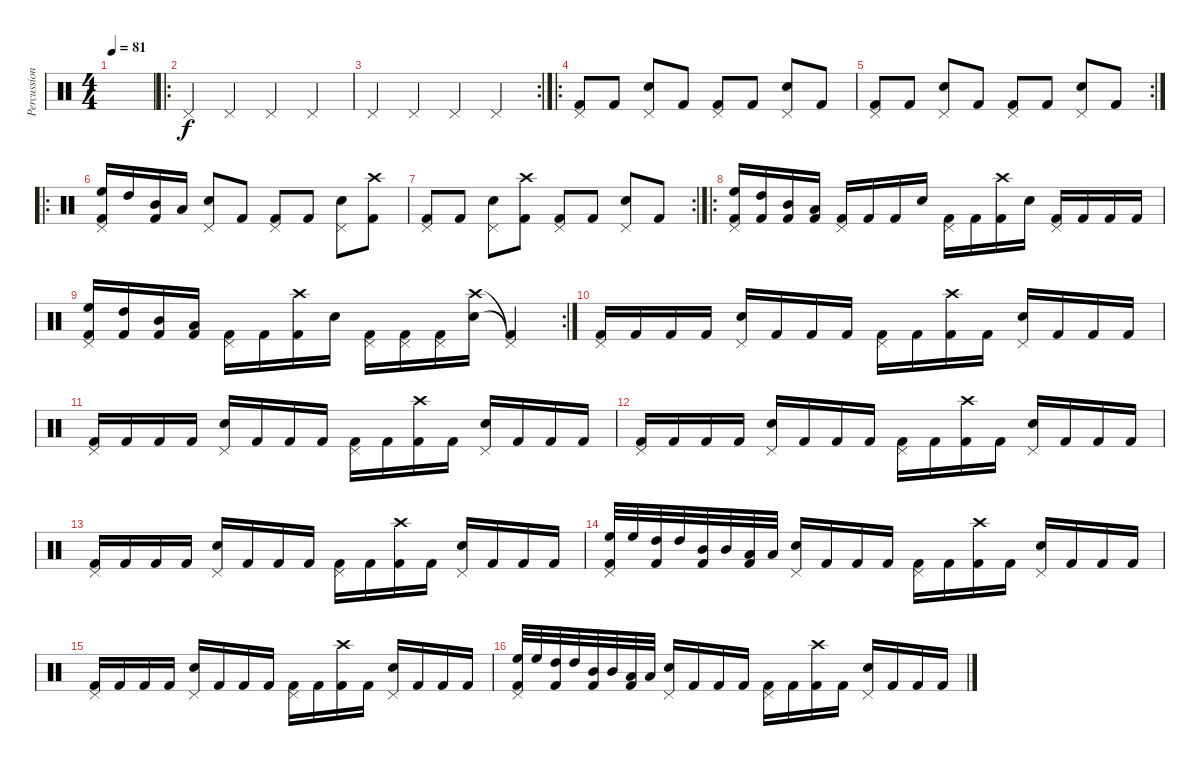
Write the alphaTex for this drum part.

\track ("Percussions" "Percussion") {instrument percussion}
\staff {score}
\articulation defaults
\ts (4 4)
\tempo 81
\clef neutral
\ks c
|
\ro "Pedal Hi-Hat (hit)".4 "Pedal Hi-Hat (hit)".4 "Pedal Hi-Hat (hit)".4 "Pedal Hi-Hat (hit)".4
|
\rc 2 "Pedal Hi-Hat (hit)".4 "Pedal Hi-Hat (hit)".4 "Pedal Hi-Hat (hit)".4 "Pedal Hi-Hat (hit)".4
|
\ro
("Pedal Hi-Hat (hit)" "Kick (hit) 2").8 "Kick (hit) 2".8 ("Pedal Hi-Hat (hit)" "Snare (hit) 2").8 "Kick (hit) 2".8 ("Pedal Hi-Hat (hit)" "Kick (hit) 2").8 "Kick (hit) 2".8 ("Pedal Hi-Hat (hit)" "Snare (hit) 2").8 "Kick (hit) 2".8 |
\rc 2
("Pedal Hi-Hat (hit)" "Kick (hit) 2").8 "Kick (hit) 2".8 ("Pedal Hi-Hat (hit)" "Snare (hit) 2").8 "Kick (hit) 2".8 ("Pedal Hi-Hat (hit)" "Kick (hit) 2").8 "Kick (hit) 2".8 ("Pedal Hi-Hat (hit)" "Snare (hit) 2").8 "Kick (hit) 2".8 |
\ro
("Pedal Hi-Hat (hit)" "High Floor Tom (hit)" "Kick (hit) 2").16 "High Tom (hit)".16 ("Mid Tom (hit)" "Kick (hit) 2").16 "Low Tom (hit)".16 ("Pedal Hi-Hat (hit)" "Snare (hit) 2").8 "Kick (hit) 2".8 ("Pedal Hi-Hat (hit)" "Kick (hit) 2").8 "Kick (hit) 2".8 ("Pedal Hi-Hat (hit)" "Snare (hit) 2").8 ("Crash high (hit)" "Kick (hit) 2").8 |
\rc 2
("Pedal Hi-Hat (hit)" "Kick (hit) 2").8 "Kick (hit) 2".8 ("Pedal Hi-Hat (hit)" "Snare (hit) 2").8 ("Crash high (hit)" "Kick (hit) 2").8 ("Pedal Hi-Hat (hit)" "Kick (hit) 2").8 "Kick (hit) 2".8 ("Pedal Hi-Hat (hit)" "Snare (hit) 2").8 "Kick (hit) 2".8 |
\ro
("Pedal Hi-Hat (hit)" "High Floor Tom (hit)" "Kick (hit) 2").16 ("High Tom (hit)" "Kick (hit) 2").16 ("Mid Tom (hit)" "Kick (hit) 2").16 ("Low Tom (hit)" "Kick (hit) 2").16 ("Pedal Hi-Hat (hit)" "Kick (hit) 2").16 "Kick (hit) 2".16 "Kick (hit) 2".16 "Snare (hit) 2".16 ("Pedal Hi-Hat (hit)" "Kick (hit) 2").16 "Kick (hit) 2".16 ("Crash high (hit)" "Kick (hit) 2").16 "Snare (hit) 2".16 ("Pedal Hi-Hat (hit)" "Kick (hit) 2").16 "Kick (hit) 2".16 "Kick (hit) 2".16 "Kick (hit) 2".16 |
\rc 2
("Pedal Hi-Hat (hit)" "High Floor Tom (hit)" "Kick (hit) 2").16 ("High Tom (hit)" "Kick (hit) 2").16 ("Mid Tom (hit)" "Kick (hit) 2").16 ("Low Tom (hit)" "Kick (hit) 2").16 ("Pedal Hi-Hat (hit)" "Kick (hit) 2").16 "Kick (hit) 2".16 ("Crash high (hit)" "Kick (hit) 2").16 "Snare (hit) 2".16 ("Pedal Hi-Hat (hit)" "Kick (hit) 2").16 ("Pedal Hi-Hat (hit)" "Kick (hit) 2").16 ("Pedal Hi-Hat (hit)" "Kick (hit) 2").16 ("Crash high (hit)" "Snare (hit) 2").16 ("Pedal Hi-Hat (hit)"{t} "Kick (hit) 2"{t}).4 |
("Pedal Hi-Hat (hit)" "Kick (hit) 2").16 "Kick (hit) 2".16 "Kick (hit) 2".16 "Kick (hit) 2".16 ("Pedal Hi-Hat (hit)" "Snare (hit) 2").16 "Kick (hit) 2".16 "Kick (hit) 2".16 "Kick (hit) 2".16 ("Pedal Hi-Hat (hit)" "Kick (hit) 2").16 "Kick (hit) 2".16 ("Crash high (hit)" "Kick (hit) 2").16 "Kick (hit) 2".16 ("Pedal Hi-Hat (hit)" "Snare (hit) 2").16 "Kick (hit) 2".16 "Kick (hit) 2".16 "Kick (hit) 2".16 |
("Pedal Hi-Hat (hit)" "Kick (hit) 2").16 "Kick (hit) 2".16 "Kick (hit) 2".16 "Kick (hit) 2".16 ("Pedal Hi-Hat (hit)" "Snare (hit) 2").16 "Kick (hit) 2".16 "Kick (hit) 2".16 "Kick (hit) 2".16 ("Pedal Hi-Hat (hit)" "Kick (hit) 2").16 "Kick (hit) 2".16 ("Crash high (hit)" "Kick (hit) 2").16 "Kick (hit) 2".16 ("Pedal Hi-Hat (hit)" "Snare (hit) 2").16 "Kick (hit) 2".16 "Kick (hit) 2".16 "Kick (hit) 2".16 |
("Pedal Hi-Hat (hit)" "Kick (hit) 2").16 "Kick (hit) 2".16 "Kick (hit) 2".16 "Kick (hit) 2".16 ("Pedal Hi-Hat (hit)" "Snare (hit) 2").16 "Kick (hit) 2".16 "Kick (hit) 2".16 "Kick (hit) 2".16 ("Pedal Hi-Hat (hit)" "Kick (hit) 2").16 "Kick (hit) 2".16 ("Crash high (hit)" "Kick (hit) 2").16 "Kick (hit) 2".16 ("Pedal Hi-Hat (hit)" "Snare (hit) 2").16 "Kick (hit) 2".16 "Kick (hit) 2".16 "Kick (hit) 2".16 |
("Pedal Hi-Hat (hit)" "Kick (hit) 2").16 "Kick (hit) 2".16 "Kick (hit) 2".16 "Kick (hit) 2".16 ("Pedal Hi-Hat (hit)" "Snare (hit) 2").16 "Kick (hit) 2".16 "Kick (hit) 2".16 "Kick (hit) 2".16 ("Pedal Hi-Hat (hit)" "Kick (hit) 2").16 "Kick (hit) 2".16 ("Crash high (hit)" "Kick (hit) 2").16 "Kick (hit) 2".16 ("Pedal Hi-Hat (hit)" "Snare (hit) 2").16 "Kick (hit) 2".16 "Kick (hit) 2".16 "Kick (hit) 2".16 |
("Pedal Hi-Hat (hit)" "High Floor Tom (hit)" "Kick (hit) 2").32 "High Floor Tom (hit)".32 ("High Tom (hit)" "Kick (hit) 2").32 "High Tom (hit)".32 ("Mid Tom (hit)" "Kick (hit) 2").32 "Mid Tom (hit)".32 ("Low Tom (hit)" "Kick (hit) 2").32 "Low Tom (hit)".32 ("Pedal Hi-Hat (hit)" "Snare (hit) 2").16 "Kick (hit) 2".16 "Kick (hit) 2".16 "Kick (hit) 2".16 ("Pedal Hi-Hat (hit)" "Kick (hit) 2").16 "Kick (hit) 2".16 ("Crash high (hit)" "Kick (hit) 2").16 "Kick (hit) 2".16 ("Pedal Hi-Hat (hit)" "Snare (hit) 2").16 "Kick (hit) 2".16 "Kick (hit) 2".16 "Kick (hit) 2".16 |
("Pedal Hi-Hat (hit)" "Kick (hit) 2").16 "Kick (hit) 2".16 "Kick (hit) 2".16 "Kick (hit) 2".16 ("Pedal Hi-Hat (hit)" "Snare (hit) 2").16 "Kick (hit) 2".16 "Kick (hit) 2".16 "Kick (hit) 2".16 ("Pedal Hi-Hat (hit)" "Kick (hit) 2").16 "Kick (hit) 2".16 ("Crash high (hit)" "Kick (hit) 2").16 "Kick (hit) 2".16 ("Pedal Hi-Hat (hit)" "Snare (hit) 2").16 "Kick (hit) 2".16 "Kick (hit) 2".16 "Kick (hit) 2".16 |
("Pedal Hi-Hat (hit)" "High Floor Tom (hit)" "Kick (hit) 2").32 "High Floor Tom (hit)".32 ("High Tom (hit)" "Kick (hit) 2").32 "High Tom (hit)".32 ("Mid Tom (hit)" "Kick (hit) 2").32 "Mid Tom (hit)".32 ("Low Tom (hit)" "Kick (hit) 2").32 "Low Tom (hit)".32 ("Pedal Hi-Hat (hit)" "Snare (hit) 2").16 "Kick (hit) 2".16 "Kick (hit) 2".16 "Kick (hit) 2".16 ("Pedal Hi-Hat (hit)" "Kick (hit) 2").16 "Kick (hit) 2".16 ("Crash high (hit)" "Kick (hit) 2").16 "Kick (hit) 2".16 ("Pedal Hi-Hat (hit)" "Snare (hit) 2").16 "Kick (hit) 2".16 "Kick (hit) 2".16 "Kick (hit) 2".16
